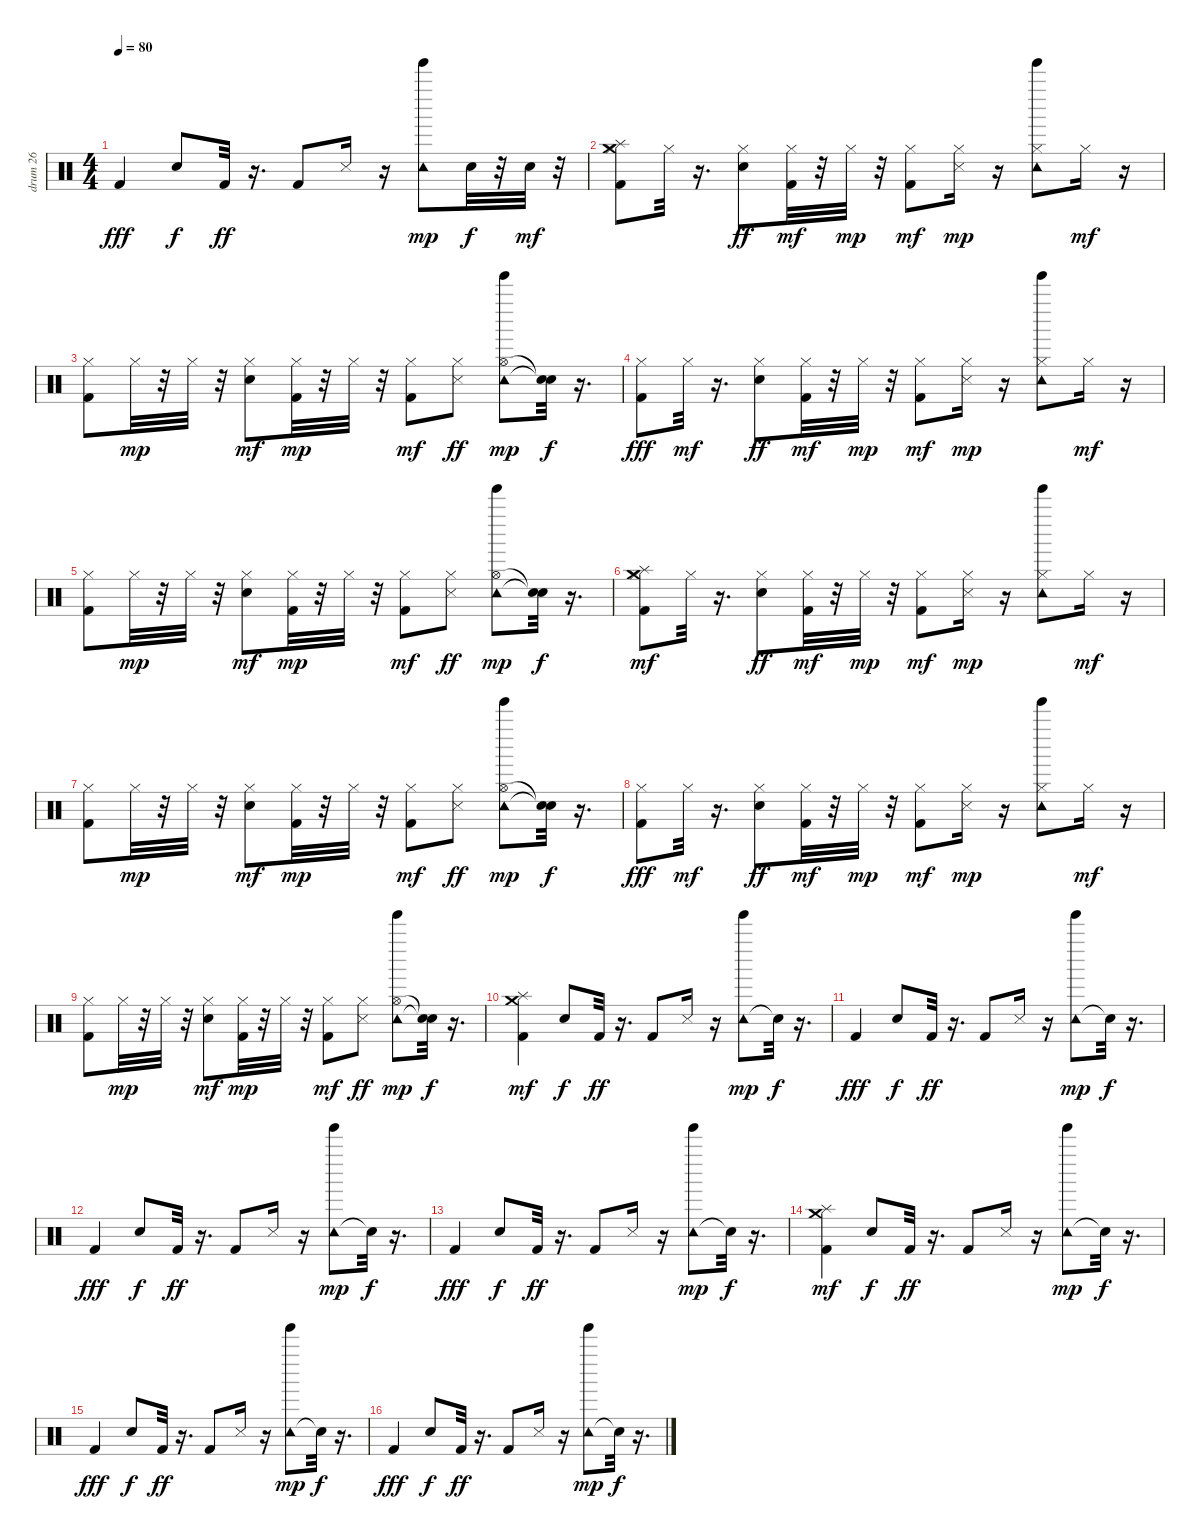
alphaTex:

\track ("drum 26" "drum 26") {instrument percussion}
\staff {score}
\articulation defaults
\ts (4 4)
\tempo 80
\clef neutral
\ks c "Kick (hit) 2".4{dy fff} "Hand Clap (hit)".8{dy f} "Kick (hit) 2".32{dy ff}
r.16{d} "Kick (hit) 2".8 "Snare (side stick) 3".16 r.16 ("Tambourine (hit)" "Tinkle Bell (hit)").8{dy mp} "Electric Snare (hit)".32{dy f} r.32 "Electric Snare (hit)".32{dy mf} r.32 |
("Kick (hit) 2" "Hi-Hat (closed)" "Splash (hit)" "Crash medium (hit)").8 "Hi-Hat (closed)".32 r.16{d} ("Hand Clap (hit)" "Hi-Hat (closed)").8{dy ff} ("Kick (hit) 2" "Hi-Hat (closed)").32{dy mf} r.32 "Hi-Hat (closed)".32{dy mp} r.32 ("Kick (hit) 2" "Hi-Hat (closed)").8{dy mf} ("Snare (side stick) 3" "Hi-Hat (closed)").16{dy mp} r.16 ("Hi-Hat (closed)" "Tambourine (hit)" "Tinkle Bell (hit)").8 "Hi-Hat (closed)".16{dy mf} r.16 |
("Kick (hit) 2" "Hi-Hat (closed)").8 "Hi-Hat (closed)".32{dy mp} r.32 "Hi-Hat (closed)".32 r.32 ("Hand Clap (hit)" "Hi-Hat (closed)").8{dy mf} ("Kick (hit) 2" "Hi-Hat (closed)").32{dy mp} r.32 "Hi-Hat (closed)".32 r.32 ("Kick (hit) 2" "Hi-Hat (closed)").8{dy mf} ("Snare (side stick) 3" "Hi-Hat (closed)").8{dy ff} ("Hi-Hat (open)" "Tambourine (hit)" "Tinkle Bell (hit)").8{dy mp} ("Snare (hit)"{t} "Snare (hit)"{t}).32{dy f} r.16{d} |
("Kick (hit) 2" "Hi-Hat (closed)").8{dy fff} "Hi-Hat (closed)".32{dy mf} r.16{d} ("Hand Clap (hit)" "Hi-Hat (closed)").8{dy ff} ("Kick (hit) 2" "Hi-Hat (closed)").32{dy mf} r.32 "Hi-Hat (closed)".32{dy mp} r.32 ("Kick (hit) 2" "Hi-Hat (closed)").8{dy mf} ("Snare (side stick) 3" "Hi-Hat (closed)").16{dy mp} r.16 ("Hi-Hat (closed)" "Tambourine (hit)" "Tinkle Bell (hit)").8 "Hi-Hat (closed)".16{dy mf} r.16 |
("Kick (hit) 2" "Hi-Hat (closed)").8 "Hi-Hat (closed)".32{dy mp} r.32 "Hi-Hat (closed)".32 r.32 ("Hand Clap (hit)" "Hi-Hat (closed)").8{dy mf} ("Kick (hit) 2" "Hi-Hat (closed)").32{dy mp} r.32 "Hi-Hat (closed)".32 r.32 ("Kick (hit) 2" "Hi-Hat (closed)").8{dy mf} ("Snare (side stick) 3" "Hi-Hat (closed)").8{dy ff} ("Hi-Hat (open)" "Tambourine (hit)" "Tinkle Bell (hit)").8{dy mp} ("Snare (hit)"{t} "Snare (hit)"{t}).32{dy f} r.16{d} |
("Kick (hit) 2" "Hi-Hat (closed)" "Splash (hit)" "Crash medium (hit)").8{dy mf} "Hi-Hat (closed)".32 r.16{d} ("Hand Clap (hit)" "Hi-Hat (closed)").8{dy ff} ("Kick (hit) 2" "Hi-Hat (closed)").32{dy mf} r.32 "Hi-Hat (closed)".32{dy mp} r.32 ("Kick (hit) 2" "Hi-Hat (closed)").8{dy mf} ("Snare (side stick) 3" "Hi-Hat (closed)").16{dy mp} r.16 ("Hi-Hat (closed)" "Tambourine (hit)" "Tinkle Bell (hit)").8 "Hi-Hat (closed)".16{dy mf} r.16 |
("Kick (hit) 2" "Hi-Hat (closed)").8 "Hi-Hat (closed)".32{dy mp} r.32 "Hi-Hat (closed)".32 r.32 ("Hand Clap (hit)" "Hi-Hat (closed)").8{dy mf} ("Kick (hit) 2" "Hi-Hat (closed)").32{dy mp} r.32 "Hi-Hat (closed)".32 r.32 ("Kick (hit) 2" "Hi-Hat (closed)").8{dy mf} ("Snare (side stick) 3" "Hi-Hat (closed)").8{dy ff} ("Hi-Hat (open)" "Tambourine (hit)" "Tinkle Bell (hit)").8{dy mp} ("Snare (hit)"{t} "Snare (hit)"{t}).32{dy f} r.16{d} |
("Kick (hit) 2" "Hi-Hat (closed)").8{dy fff} "Hi-Hat (closed)".32{dy mf} r.16{d} ("Hand Clap (hit)" "Hi-Hat (closed)").8{dy ff} ("Kick (hit) 2" "Hi-Hat (closed)").32{dy mf} r.32 "Hi-Hat (closed)".32{dy mp} r.32 ("Kick (hit) 2" "Hi-Hat (closed)").8{dy mf} ("Snare (side stick) 3" "Hi-Hat (closed)").16{dy mp} r.16 ("Hi-Hat (closed)" "Tambourine (hit)" "Tinkle Bell (hit)").8 "Hi-Hat (closed)".16{dy mf} r.16 |
("Kick (hit) 2" "Hi-Hat (closed)").8 "Hi-Hat (closed)".32{dy mp} r.32 "Hi-Hat (closed)".32 r.32 ("Hand Clap (hit)" "Hi-Hat (closed)").8{dy mf} ("Kick (hit) 2" "Hi-Hat (closed)").32{dy mp} r.32 "Hi-Hat (closed)".32 r.32 ("Kick (hit) 2" "Hi-Hat (closed)").8{dy mf} ("Snare (side stick) 3" "Hi-Hat (closed)").8{dy ff} ("Hi-Hat (open)" "Tambourine (hit)" "Tinkle Bell (hit)").8{dy mp} ("Snare (hit)"{t} "Snare (hit)"{t}).32{dy f} r.16{d} |
("Kick (hit) 2" "Splash (hit)" "Crash medium (hit)").4{dy mf} "Hand Clap (hit)".8{dy f} "Kick (hit) 2".32{dy ff} r.16{d} "Kick (hit) 2".8 "Snare (side stick) 3".16 r.16 ("Tambourine (hit)" "Tinkle Bell (hit)").8{dy mp} "Snare (hit)"{t}.32{dy f} r.16{d} |
"Kick (hit) 2".4{dy fff} "Hand Clap (hit)".8{dy f} "Kick (hit) 2".32{dy ff} r.16{d} "Kick (hit) 2".8 "Snare (side stick) 3".16 r.16 ("Tambourine (hit)" "Tinkle Bell (hit)").8{dy mp} "Snare (hit)"{t}.32{dy f} r.16{d} |
"Kick (hit) 2".4{dy fff} "Hand Clap (hit)".8{dy f} "Kick (hit) 2".32{dy ff} r.16{d} "Kick (hit) 2".8 "Snare (side stick) 3".16 r.16 ("Tambourine (hit)" "Tinkle Bell (hit)").8{dy mp} "Snare (hit)"{t}.32{dy f} r.16{d} |
"Kick (hit) 2".4{dy fff} "Hand Clap (hit)".8{dy f} "Kick (hit) 2".32{dy ff} r.16{d} "Kick (hit) 2".8 "Snare (side stick) 3".16 r.16 ("Tambourine (hit)" "Tinkle Bell (hit)").8{dy mp} "Snare (hit)"{t}.32{dy f} r.16{d} |
("Kick (hit) 2" "Splash (hit)" "Crash medium (hit)").4{dy mf} "Hand Clap (hit)".8{dy f} "Kick (hit) 2".32{dy ff} r.16{d} "Kick (hit) 2".8 "Snare (side stick) 3".16 r.16 ("Tambourine (hit)" "Tinkle Bell (hit)").8{dy mp} "Snare (hit)"{t}.32{dy f} r.16{d} |
"Kick (hit) 2".4{dy fff} "Hand Clap (hit)".8{dy f} "Kick (hit) 2".32{dy ff} r.16{d} "Kick (hit) 2".8 "Snare (side stick) 3".16 r.16 ("Tambourine (hit)" "Tinkle Bell (hit)").8{dy mp} "Snare (hit)"{t}.32{dy f} r.16{d} |
"Kick (hit) 2".4{dy fff} "Hand Clap (hit)".8{dy f} "Kick (hit) 2".32{dy ff} r.16{d} "Kick (hit) 2".8 "Snare (side stick) 3".16 r.16 ("Tambourine (hit)" "Tinkle Bell (hit)").8{dy mp} "Snare (hit)"{t}.32{dy f} r.16{d}
